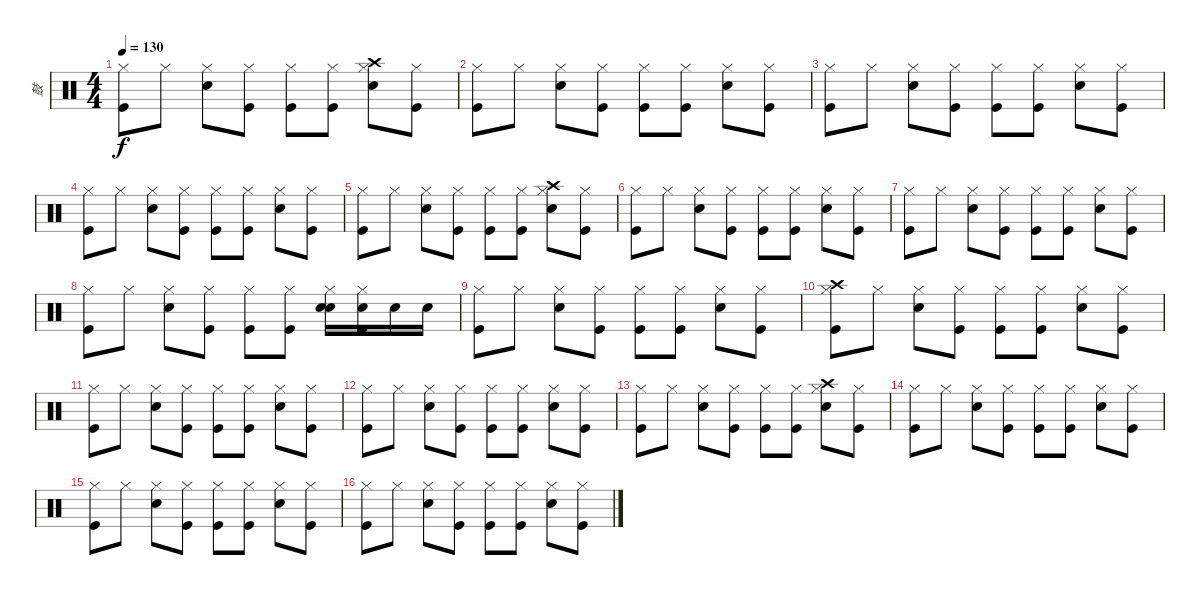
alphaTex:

\track ("鼓" "鼓") {instrument percussion}
\staff {score}
\articulation defaults
\ts (4 4)
\tempo 130
\clef neutral
\ks c
("Hi-Hat (closed)" "Kick (hit)").8{dy f} "Hi-Hat (closed)".8 ("Hi-Hat (closed)" "Snare (hit) 2").8 ("Hi-Hat (closed)" "Kick (hit)").8 ("Hi-Hat (closed)" "Kick (hit)").8 ("Hi-Hat (closed)" "Kick (hit)").8 ("Crash high (hit)" "Hi-Hat (closed)" "Snare (hit) 2").8 ("Hi-Hat (closed)" "Kick (hit)").8 |
("Hi-Hat (closed)" "Kick (hit)").8 "Hi-Hat (closed)".8 ("Hi-Hat (closed)" "Snare (hit) 2").8 ("Hi-Hat (closed)" "Kick (hit)").8 ("Hi-Hat (closed)" "Kick (hit)").8 ("Hi-Hat (closed)" "Kick (hit)").8 ("Hi-Hat (closed)" "Snare (hit) 2").8 ("Hi-Hat (closed)" "Kick (hit)").8 |
("Hi-Hat (closed)" "Kick (hit)").8 "Hi-Hat (closed)".8 ("Hi-Hat (closed)" "Snare (hit) 2").8 ("Hi-Hat (closed)" "Kick (hit)").8 ("Hi-Hat (closed)" "Kick (hit)").8 ("Hi-Hat (closed)" "Kick (hit)").8 ("Hi-Hat (closed)" "Snare (hit) 2").8 ("Hi-Hat (closed)" "Kick (hit)").8 |
("Hi-Hat (closed)" "Kick (hit)").8 "Hi-Hat (closed)".8 ("Hi-Hat (closed)" "Snare (hit) 2").8 ("Hi-Hat (closed)" "Kick (hit)").8 ("Hi-Hat (closed)" "Kick (hit)").8 ("Hi-Hat (closed)" "Kick (hit)").8 ("Hi-Hat (closed)" "Snare (hit) 2").8 ("Hi-Hat (closed)" "Kick (hit)").8 |
("Hi-Hat (closed)" "Kick (hit)").8 "Hi-Hat (closed)".8 ("Hi-Hat (closed)" "Snare (hit) 2").8 ("Hi-Hat (closed)" "Kick (hit)").8 ("Hi-Hat (closed)" "Kick (hit)").8 ("Hi-Hat (closed)" "Kick (hit)").8 ("Crash high (hit)" "Hi-Hat (closed)" "Snare (hit) 2").8 ("Hi-Hat (closed)" "Kick (hit)").8 |
("Hi-Hat (closed)" "Kick (hit)").8 "Hi-Hat (closed)".8 ("Hi-Hat (closed)" "Snare (hit) 2").8 ("Hi-Hat (closed)" "Kick (hit)").8 ("Hi-Hat (closed)" "Kick (hit)").8 ("Hi-Hat (closed)" "Kick (hit)").8 ("Hi-Hat (closed)" "Snare (hit) 2").8 ("Hi-Hat (closed)" "Kick (hit)").8 |
("Hi-Hat (closed)" "Kick (hit)").8 "Hi-Hat (closed)".8 ("Hi-Hat (closed)" "Snare (hit) 2").8 ("Hi-Hat (closed)" "Kick (hit)").8 ("Hi-Hat (closed)" "Kick (hit)").8 ("Hi-Hat (closed)" "Kick (hit)").8 ("Hi-Hat (closed)" "Snare (hit) 2").8 ("Hi-Hat (closed)" "Kick (hit)").8 |
("Hi-Hat (closed)" "Kick (hit)").8 "Hi-Hat (closed)".8 ("Hi-Hat (closed)" "Snare (hit) 2").8 ("Hi-Hat (closed)" "Kick (hit)").8 ("Hi-Hat (closed)" "Kick (hit)").8 ("Hi-Hat (closed)" "Kick (hit)").8 ("Hi-Hat (closed)" "Snare (hit) 2" "Snare (hit) 2").16 ("Hi-Hat (closed)" "Snare (hit) 2" "Kick (hit)").16 "Snare (hit) 2".16 "Snare (hit) 2".16 |
("Hi-Hat (closed)" "Kick (hit)").8 "Hi-Hat (closed)".8 ("Hi-Hat (closed)" "Snare (hit) 2").8 ("Hi-Hat (closed)" "Kick (hit)").8 ("Hi-Hat (closed)" "Kick (hit)").8 ("Hi-Hat (closed)" "Kick (hit)").8 ("Hi-Hat (closed)" "Snare (hit) 2").8 ("Hi-Hat (closed)" "Kick (hit)").8 |
("Crash high (hit)" "Hi-Hat (closed)" "Kick (hit)").8 "Hi-Hat (closed)".8 ("Hi-Hat (closed)" "Snare (hit) 2").8 ("Hi-Hat (closed)" "Kick (hit)").8 ("Hi-Hat (closed)" "Kick (hit)").8 ("Hi-Hat (closed)" "Kick (hit)").8 ("Hi-Hat (closed)" "Snare (hit) 2").8 ("Hi-Hat (closed)" "Kick (hit)").8 |
("Hi-Hat (closed)" "Kick (hit)").8 "Hi-Hat (closed)".8 ("Hi-Hat (closed)" "Snare (hit) 2").8 ("Hi-Hat (closed)" "Kick (hit)").8 ("Hi-Hat (closed)" "Kick (hit)").8 ("Hi-Hat (closed)" "Kick (hit)").8 ("Hi-Hat (closed)" "Snare (hit) 2").8 ("Hi-Hat (closed)" "Kick (hit)").8 |
("Hi-Hat (closed)" "Kick (hit)").8 "Hi-Hat (closed)".8 ("Hi-Hat (closed)" "Snare (hit) 2").8 ("Hi-Hat (closed)" "Kick (hit)").8 ("Hi-Hat (closed)" "Kick (hit)").8 ("Hi-Hat (closed)" "Kick (hit)").8 ("Hi-Hat (closed)" "Snare (hit) 2").8 ("Hi-Hat (closed)" "Kick (hit)").8 |
("Hi-Hat (closed)" "Kick (hit)").8 "Hi-Hat (closed)".8 ("Hi-Hat (closed)" "Snare (hit) 2").8 ("Hi-Hat (closed)" "Kick (hit)").8 ("Hi-Hat (closed)" "Kick (hit)").8 ("Hi-Hat (closed)" "Kick (hit)").8 ("Crash high (hit)" "Hi-Hat (closed)" "Snare (hit) 2").8 ("Hi-Hat (closed)" "Kick (hit)").8 |
("Hi-Hat (closed)" "Kick (hit)").8 "Hi-Hat (closed)".8 ("Hi-Hat (closed)" "Snare (hit) 2").8 ("Hi-Hat (closed)" "Kick (hit)").8 ("Hi-Hat (closed)" "Kick (hit)").8 ("Hi-Hat (closed)" "Kick (hit)").8 ("Hi-Hat (closed)" "Snare (hit) 2").8 ("Hi-Hat (closed)" "Kick (hit)").8 |
("Hi-Hat (closed)" "Kick (hit)").8 "Hi-Hat (closed)".8 ("Hi-Hat (closed)" "Snare (hit) 2").8 ("Hi-Hat (closed)" "Kick (hit)").8 ("Hi-Hat (closed)" "Kick (hit)").8 ("Hi-Hat (closed)" "Kick (hit)").8 ("Hi-Hat (closed)" "Snare (hit) 2").8 ("Hi-Hat (closed)" "Kick (hit)").8 |
("Hi-Hat (closed)" "Kick (hit)").8 "Hi-Hat (closed)".8 ("Hi-Hat (closed)" "Snare (hit) 2").8 ("Hi-Hat (closed)" "Kick (hit)").8 ("Hi-Hat (closed)" "Kick (hit)").8 ("Hi-Hat (closed)" "Kick (hit)").8 ("Hi-Hat (closed)" "Snare (hit) 2").8 ("Hi-Hat (closed)" "Kick (hit)").8
